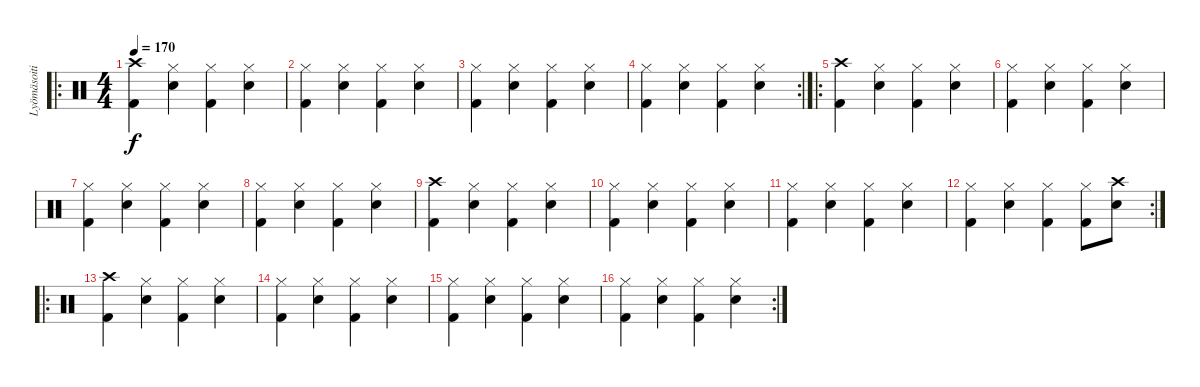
\track ("Lyömäsoitin" "Lyömäsoiti") {instrument percussion}
\staff {score}
\articulation defaults
\ro
\ts (4 4)
\tempo 170
\clef neutral
\ks c
("Crash high (hit)" "Kick (hit) 2").4{dy f} ("Hi-Hat (closed)" "Snare (hit) 2").4 ("Hi-Hat (closed)" "Kick (hit) 2").4 ("Hi-Hat (closed)" "Snare (hit) 2").4 |
("Hi-Hat (closed)" "Kick (hit) 2").4 ("Hi-Hat (closed)" "Snare (hit) 2").4 ("Hi-Hat (closed)" "Kick (hit) 2").4 ("Hi-Hat (closed)" "Snare (hit) 2").4 |
("Hi-Hat (closed)" "Kick (hit) 2").4 ("Hi-Hat (closed)" "Snare (hit) 2").4 ("Hi-Hat (closed)" "Kick (hit) 2").4 ("Hi-Hat (closed)" "Snare (hit) 2").4 |
\rc 2
("Hi-Hat (closed)" "Kick (hit) 2").4 ("Hi-Hat (closed)" "Snare (hit) 2").4 ("Hi-Hat (closed)" "Kick (hit) 2").4 ("Hi-Hat (closed)" "Snare (hit) 2").4 |
\ro
("Crash high (hit)" "Kick (hit) 2").4 ("Hi-Hat (closed)" "Snare (hit) 2").4 ("Hi-Hat (closed)" "Kick (hit) 2").4 ("Hi-Hat (closed)" "Snare (hit) 2").4 |
("Hi-Hat (closed)" "Kick (hit) 2").4 ("Hi-Hat (closed)" "Snare (hit) 2").4 ("Hi-Hat (closed)" "Kick (hit) 2").4 ("Hi-Hat (closed)" "Snare (hit) 2").4 |
("Hi-Hat (closed)" "Kick (hit) 2").4 ("Hi-Hat (closed)" "Snare (hit) 2").4 ("Hi-Hat (closed)" "Kick (hit) 2").4 ("Hi-Hat (closed)" "Snare (hit) 2").4 |
("Hi-Hat (closed)" "Kick (hit) 2").4 ("Hi-Hat (closed)" "Snare (hit) 2").4 ("Hi-Hat (closed)" "Kick (hit) 2").4 ("Hi-Hat (closed)" "Snare (hit) 2").4 |
("Crash high (hit)" "Kick (hit) 2").4 ("Hi-Hat (closed)" "Snare (hit) 2").4 ("Hi-Hat (closed)" "Kick (hit) 2").4 ("Hi-Hat (closed)" "Snare (hit) 2").4 |
("Hi-Hat (closed)" "Kick (hit) 2").4 ("Hi-Hat (closed)" "Snare (hit) 2").4 ("Hi-Hat (closed)" "Kick (hit) 2").4 ("Hi-Hat (closed)" "Snare (hit) 2").4 |
("Hi-Hat (closed)" "Kick (hit) 2").4 ("Hi-Hat (closed)" "Snare (hit) 2").4 ("Hi-Hat (closed)" "Kick (hit) 2").4 ("Hi-Hat (closed)" "Snare (hit) 2").4 |
\rc 2
("Hi-Hat (closed)" "Kick (hit) 2").4 ("Hi-Hat (closed)" "Snare (hit) 2").4 ("Hi-Hat (closed)" "Kick (hit) 2").4 ("Hi-Hat (closed)" "Kick (hit) 2").8 ("Crash high (hit)" "Snare (hit) 2").8 |
\ro
("Crash high (hit)" "Kick (hit) 2").4 ("Hi-Hat (closed)" "Snare (hit) 2").4 ("Hi-Hat (closed)" "Kick (hit) 2").4 ("Hi-Hat (closed)" "Snare (hit) 2").4 |
("Hi-Hat (closed)" "Kick (hit) 2").4 ("Hi-Hat (closed)" "Snare (hit) 2").4 ("Hi-Hat (closed)" "Kick (hit) 2").4 ("Hi-Hat (closed)" "Snare (hit) 2").4 |
("Hi-Hat (closed)" "Kick (hit) 2").4 ("Hi-Hat (closed)" "Snare (hit) 2").4 ("Hi-Hat (closed)" "Kick (hit) 2").4 ("Hi-Hat (closed)" "Snare (hit) 2").4 |
\rc 2
("Hi-Hat (closed)" "Kick (hit) 2").4 ("Hi-Hat (closed)" "Snare (hit) 2").4 ("Hi-Hat (closed)" "Kick (hit) 2").4 ("Hi-Hat (closed)" "Snare (hit) 2").4
